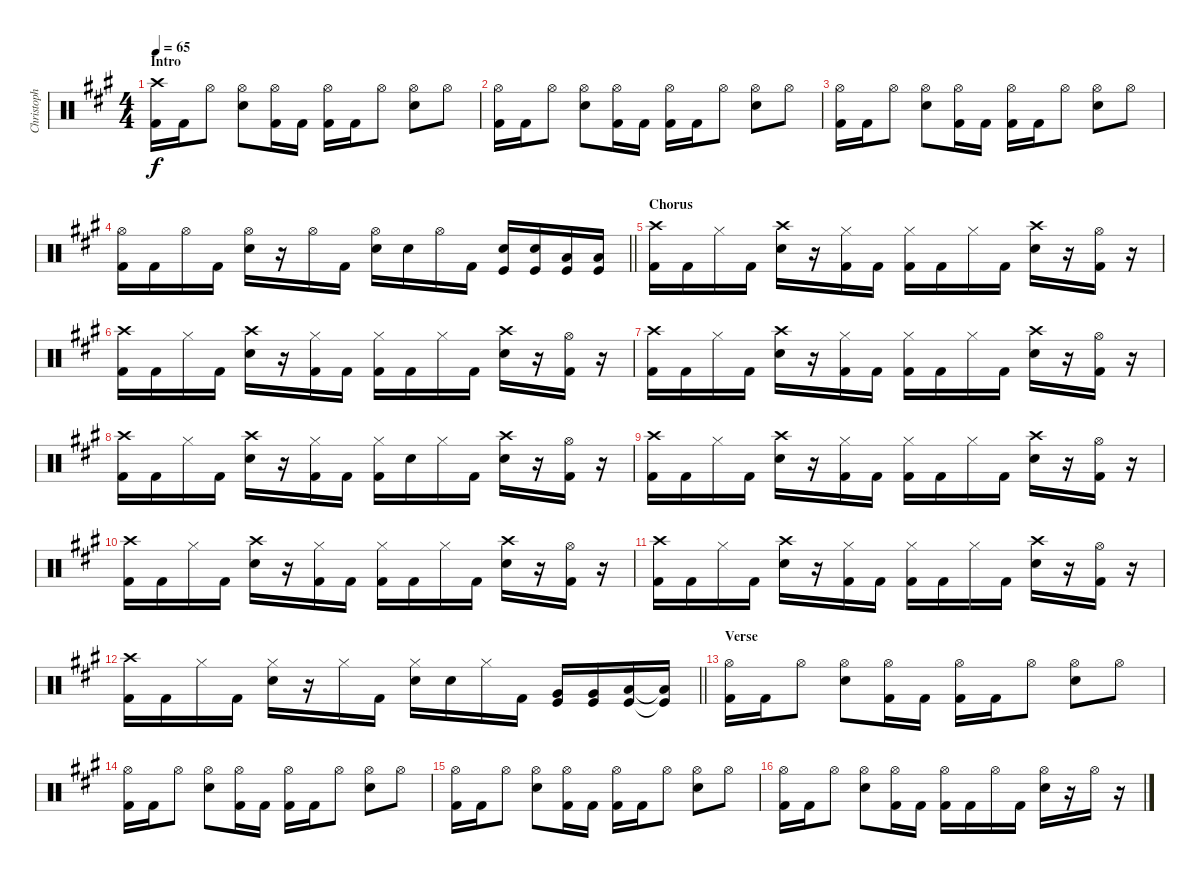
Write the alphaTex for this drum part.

\track ("Christoph Doom Schneider - Drums" "Christoph ") {instrument percussion}
\staff {score}
\articulation defaults
\ts (4 4)
\section ("" "Intro")
\tempo 65
\clef neutral
\ks a
("Crash high (hit)" "Kick (hit) 2").16{dy f} "Kick (hit) 2".16 "Hi-Hat (open)".8 ("Hi-Hat (open)" "Electric Snare (hit)").8 ("Hi-Hat (open)" "Kick (hit) 2").16 "Kick (hit) 2".16 ("Hi-Hat (open)" "Kick (hit) 2").16 "Kick (hit) 2".16 "Hi-Hat (open)".8 ("Hi-Hat (open)" "Electric Snare (hit)").8 "Hi-Hat (open)".8 |
("Hi-Hat (open)" "Kick (hit) 2").16 "Kick (hit) 2".16 "Hi-Hat (open)".8 ("Hi-Hat (open)" "Electric Snare (hit)").8 ("Hi-Hat (open)" "Kick (hit) 2").16 "Kick (hit) 2".16 ("Hi-Hat (open)" "Kick (hit) 2").16 "Kick (hit) 2".16 "Hi-Hat (open)".8 ("Hi-Hat (open)" "Electric Snare (hit)").8 "Hi-Hat (open)".8 |
("Hi-Hat (open)" "Kick (hit) 2").16 "Kick (hit) 2".16 "Hi-Hat (open)".8 ("Hi-Hat (open)" "Electric Snare (hit)").8 ("Hi-Hat (open)" "Kick (hit) 2").16 "Kick (hit) 2".16 ("Hi-Hat (open)" "Kick (hit) 2").16 "Kick (hit) 2".16 "Hi-Hat (open)".8 ("Hi-Hat (open)" "Electric Snare (hit)").8 "Hi-Hat (open)".8 |
\barLineRight lightlight
("Hi-Hat (open)" "Kick (hit) 2").16 "Kick (hit) 2".16 "Hi-Hat (open)".16 "Kick (hit) 2".16 ("Hi-Hat (open)" "Electric Snare (hit)").16 r.16 "Hi-Hat (open)".16 "Kick (hit) 2"{tr (36 64)}.16 ("Hi-Hat (open)" "Electric Snare (hit)").16 "Electric Snare (hit)".16 "Hi-Hat (open)".16 "Kick (hit) 2"{tr (36 64)}.16 ("Snare (hit) 2" "Kick (hit)").16{balance 0} ("Snare (hit) 2" "Kick (hit)").16 ("Low Floor Tom (hit)" "Kick (hit)").16 ("Low Floor Tom (hit)" "Kick (hit)").16 |
\section ("" "Chorus")
("Crash high (hit)" "Kick (hit) 2").16{balance 8} "Kick (hit) 2".16 "Hi-Hat (closed)".16 "Kick (hit) 2".16 ("Crash high (hit)" "Electric Snare (hit)").16 r.16 ("Hi-Hat (closed)" "Kick (hit) 2").16 "Kick (hit) 2".16 ("Hi-Hat (closed)" "Kick (hit) 2").16 "Kick (hit) 2".16 "Hi-Hat (closed)".16 "Kick (hit) 2".16 ("Crash high (hit)" "Electric Snare (hit)").16 r.16 ("Hi-Hat (open)" "Kick (hit) 2").16 r.16 |
("Crash high (hit)" "Kick (hit) 2").16 "Kick (hit) 2".16 "Hi-Hat (closed)".16 "Kick (hit) 2".16 ("Crash high (hit)" "Electric Snare (hit)").16 r.16 ("Hi-Hat (closed)" "Kick (hit) 2").16 "Kick (hit) 2".16 ("Hi-Hat (closed)" "Kick (hit) 2").16 "Kick (hit) 2".16 "Hi-Hat (closed)".16 "Kick (hit) 2".16 ("Crash high (hit)" "Electric Snare (hit)").16 r.16 ("Hi-Hat (open)" "Kick (hit) 2").16 r.16 |
("Crash high (hit)" "Kick (hit) 2").16 "Kick (hit) 2".16 "Hi-Hat (closed)".16 "Kick (hit) 2".16 ("Crash high (hit)" "Electric Snare (hit)").16 r.16 ("Hi-Hat (closed)" "Kick (hit) 2").16 "Kick (hit) 2".16 ("Hi-Hat (closed)" "Kick (hit) 2").16 "Kick (hit) 2".16 "Hi-Hat (closed)".16 "Kick (hit) 2".16 ("Crash high (hit)" "Electric Snare (hit)").16 r.16 ("Hi-Hat (open)" "Kick (hit) 2").16 r.16 |
("Crash high (hit)" "Kick (hit) 2").16 "Kick (hit) 2".16 "Hi-Hat (closed)".16 "Kick (hit) 2".16 ("Crash high (hit)" "Electric Snare (hit)").16 r.16 ("Hi-Hat (closed)" "Kick (hit) 2").16 "Kick (hit) 2".16 ("Hi-Hat (closed)" "Kick (hit) 2").16 "Electric Snare (hit)".16 "Hi-Hat (closed)".16 "Kick (hit) 2"{tr (36 64)}.16 ("Crash high (hit)" "Electric Snare (hit)").16 r.16 ("Hi-Hat (open)" "Kick (hit) 2").16 r.16 |
("Crash high (hit)" "Kick (hit) 2").16 "Kick (hit) 2".16 "Hi-Hat (closed)".16 "Kick (hit) 2".16 ("Crash high (hit)" "Electric Snare (hit)").16 r.16 ("Hi-Hat (closed)" "Kick (hit) 2").16 "Kick (hit) 2".16 ("Hi-Hat (closed)" "Kick (hit) 2").16 "Kick (hit) 2".16 "Hi-Hat (closed)".16 "Kick (hit) 2".16 ("Crash high (hit)" "Electric Snare (hit)").16 r.16 ("Hi-Hat (open)" "Kick (hit) 2").16 r.16 |
("Crash high (hit)" "Kick (hit) 2").16 "Kick (hit) 2".16 "Hi-Hat (closed)".16 "Kick (hit) 2".16 ("Crash high (hit)" "Electric Snare (hit)").16 r.16 ("Hi-Hat (closed)" "Kick (hit) 2").16 "Kick (hit) 2".16 ("Hi-Hat (closed)" "Kick (hit) 2").16 "Kick (hit) 2".16 "Hi-Hat (closed)".16 "Kick (hit) 2".16 ("Crash high (hit)" "Electric Snare (hit)").16 r.16 ("Hi-Hat (open)" "Kick (hit) 2").16 r.16 |
("Crash high (hit)" "Kick (hit) 2").16 "Kick (hit) 2".16 "Hi-Hat (closed)".16 "Kick (hit) 2".16 ("Crash high (hit)" "Electric Snare (hit)").16 r.16 ("Hi-Hat (closed)" "Kick (hit) 2").16 "Kick (hit) 2".16 ("Hi-Hat (closed)" "Kick (hit) 2").16 "Kick (hit) 2".16 "Hi-Hat (closed)".16 "Kick (hit) 2".16 ("Crash high (hit)" "Electric Snare (hit)").16 r.16 ("Hi-Hat (open)" "Kick (hit) 2").16 r.16 |
\barLineRight lightlight
("Crash high (hit)" "Kick (hit) 2").16 "Kick (hit) 2".16 "Hi-Hat (closed)".16 "Kick (hit) 2".16 ("Hi-Hat (closed)" "Electric Snare (hit)").16 r.16 "Hi-Hat (closed)".16 "Kick (hit) 2"{tr (36 32)}.16 ("Hi-Hat (closed)" "Electric Snare (hit)").16 "Electric Snare (hit)".16 "Hi-Hat (closed)".16 "Kick (hit) 2"{tr (36 32)}.16 ("Very Low Tom (hit)" "Kick (hit)").16 ("Very Low Tom (hit)" "Kick (hit)").16 ("Low Floor Tom (hit)" "Kick (hit)").16 ("Low Floor Tom (hit)"{t} "Kick (hit)"{t}).16 |
\section ("" "Verse")
("Hi-Hat (open)" "Kick (hit) 2").16 "Kick (hit) 2".16 "Hi-Hat (open)".8 ("Hi-Hat (open)" "Electric Snare (hit)").8 ("Hi-Hat (open)" "Kick (hit) 2").16 "Kick (hit) 2".16 ("Hi-Hat (open)" "Kick (hit) 2").16 "Kick (hit) 2".16 "Hi-Hat (open)".8 ("Hi-Hat (open)" "Electric Snare (hit)").8 "Hi-Hat (open)".8 |
("Hi-Hat (open)" "Kick (hit) 2").16 "Kick (hit) 2".16 "Hi-Hat (open)".8 ("Hi-Hat (open)" "Electric Snare (hit)").8 ("Hi-Hat (open)" "Kick (hit) 2").16 "Kick (hit) 2".16 ("Hi-Hat (open)" "Kick (hit) 2").16 "Kick (hit) 2".16 "Hi-Hat (open)".8 ("Hi-Hat (open)" "Electric Snare (hit)").8 "Hi-Hat (open)".8 |
("Hi-Hat (open)" "Kick (hit) 2").16 "Kick (hit) 2".16 "Hi-Hat (open)".8 ("Hi-Hat (open)" "Electric Snare (hit)").8 ("Hi-Hat (open)" "Kick (hit) 2").16 "Kick (hit) 2".16 ("Hi-Hat (open)" "Kick (hit) 2").16 "Kick (hit) 2".16 "Hi-Hat (open)".8 ("Hi-Hat (open)" "Electric Snare (hit)").8 "Hi-Hat (open)".8 |
("Hi-Hat (open)" "Kick (hit) 2").16 "Kick (hit) 2".16 "Hi-Hat (open)".8 ("Hi-Hat (open)" "Electric Snare (hit)").8 ("Hi-Hat (open)" "Kick (hit) 2").16 "Kick (hit) 2".16 ("Hi-Hat (open)" "Kick (hit) 2").16 "Kick (hit) 2".16 "Hi-Hat (open)".16 "Kick (hit) 2"{tr (36 64)}.16 ("Hi-Hat (open)" "Electric Snare (hit)").16 r.16 "Hi-Hat (open)".16 r.16
